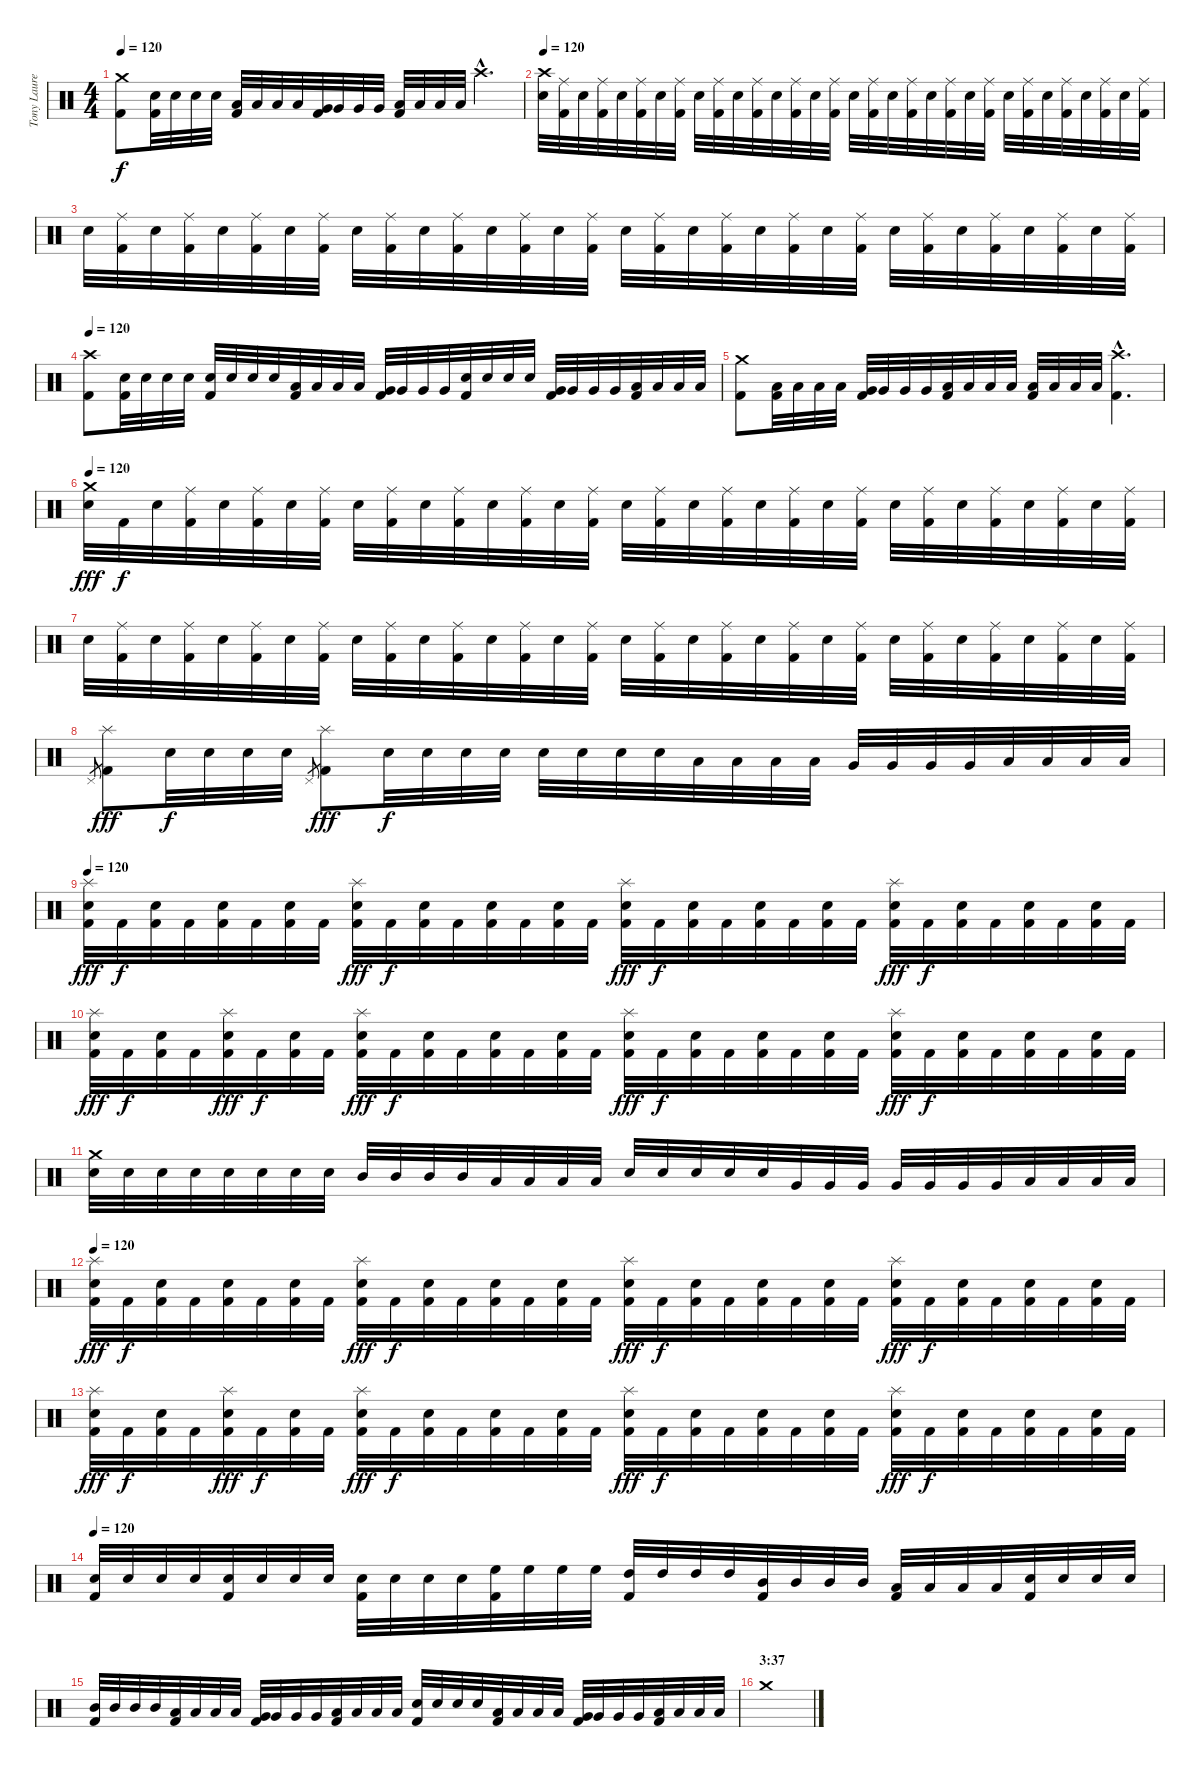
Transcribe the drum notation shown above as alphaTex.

\track ("Tony Laureano" "Tony Laure") {instrument percussion}
\staff {score}
\articulation defaults
\ts (4 4)
\tempo 120
\clef neutral
\ks c
("Crash medium (hit)" "Kick (hit) 2").8{dy f} ("Electric Snare (hit)" "Kick (hit) 2").32 "Electric Snare (hit)".32 "Electric Snare (hit)".32 "Electric Snare (hit)".32 ("Low Tom (hit)" "Kick (hit) 2").32 "Low Tom (hit)".32 "Low Tom (hit)".32 "Low Tom (hit)".32 ("Very Low Tom (hit)" "Kick (hit) 2").32 "Very Low Tom (hit)".32 "Very Low Tom (hit)".32 "Very Low Tom (hit)".32 ("Low Floor Tom (hit)" "Kick (hit) 2").32 "Low Floor Tom (hit)".32 "Low Floor Tom (hit)".32 "Low Floor Tom (hit)".32 "Crash high (hit)"{hac}.4{d} |
\tempo 120
("Crash high (hit)" "Electric Snare (hit)").32 ("Ride (middle)" "Kick (hit) 2").32 "Electric Snare (hit)".32 ("Ride (middle)" "Kick (hit) 2").32 "Electric Snare (hit)".32 ("Ride (middle)" "Kick (hit) 2").32 "Electric Snare (hit)".32 ("Ride (middle)" "Kick (hit) 2").32 "Electric Snare (hit)".32 ("Ride (middle)" "Kick (hit) 2").32 "Electric Snare (hit)".32 ("Ride (middle)" "Kick (hit) 2").32 "Electric Snare (hit)".32 ("Ride (middle)" "Kick (hit) 2").32 "Electric Snare (hit)".32 ("Ride (middle)" "Kick (hit) 2").32 "Electric Snare (hit)".32 ("Ride (middle)" "Kick (hit) 2").32 "Electric Snare (hit)".32 ("Ride (middle)" "Kick (hit) 2").32 "Electric Snare (hit)".32 ("Ride (middle)" "Kick (hit) 2").32 "Electric Snare (hit)".32 ("Ride (middle)" "Kick (hit) 2").32 "Electric Snare (hit)".32 ("Ride (middle)" "Kick (hit) 2").32 "Electric Snare (hit)".32 ("Ride (middle)" "Kick (hit) 2").32 "Electric Snare (hit)".32 ("Ride (middle)" "Kick (hit) 2").32 "Electric Snare (hit)".32 ("Ride (middle)" "Kick (hit) 2").32 |
"Electric Snare (hit)".32 ("Ride (middle)" "Kick (hit) 2").32 "Electric Snare (hit)".32 ("Ride (middle)" "Kick (hit) 2").32 "Electric Snare (hit)".32 ("Ride (middle)" "Kick (hit) 2").32 "Electric Snare (hit)".32 ("Ride (middle)" "Kick (hit) 2").32 "Electric Snare (hit)".32 ("Ride (middle)" "Kick (hit) 2").32 "Electric Snare (hit)".32 ("Ride (middle)" "Kick (hit) 2").32 "Electric Snare (hit)".32 ("Ride (middle)" "Kick (hit) 2").32 "Electric Snare (hit)".32 ("Ride (middle)" "Kick (hit) 2").32 "Electric Snare (hit)".32 ("Ride (middle)" "Kick (hit) 2").32 "Electric Snare (hit)".32 ("Ride (middle)" "Kick (hit) 2").32 "Electric Snare (hit)".32 ("Ride (middle)" "Kick (hit) 2").32 "Electric Snare (hit)".32 ("Ride (middle)" "Kick (hit) 2").32 "Electric Snare (hit)".32 ("Ride (middle)" "Kick (hit) 2").32 "Electric Snare (hit)".32 ("Ride (middle)" "Kick (hit) 2").32 "Electric Snare (hit)".32 ("Ride (middle)" "Kick (hit) 2").32 "Electric Snare (hit)".32 ("Ride (middle)" "Kick (hit) 2").32 |
\tempo 120
("Crash high (hit)" "Kick (hit) 2").8 ("Electric Snare (hit)" "Kick (hit) 2").32 "Electric Snare (hit)".32 "Electric Snare (hit)".32 "Electric Snare (hit)".32 ("Electric Snare (hit)" "Kick (hit) 2").32 "Electric Snare (hit)".32 "Electric Snare (hit)".32 "Electric Snare (hit)".32 ("Low Tom (hit)" "Kick (hit) 2").32 "Low Tom (hit)".32 "Low Tom (hit)".32 "Low Tom (hit)".32 ("Very Low Tom (hit)" "Kick (hit) 2").32 "Very Low Tom (hit)".32 "Very Low Tom (hit)".32 "Very Low Tom (hit)".32 ("Electric Snare (hit)" "Kick (hit) 2").32 "Electric Snare (hit)".32 "Electric Snare (hit)".32 "Electric Snare (hit)".32 ("Very Low Tom (hit)" "Kick (hit) 2").32 "Very Low Tom (hit)".32 "Very Low Tom (hit)".32 "Very Low Tom (hit)".32 ("Low Floor Tom (hit)" "Kick (hit) 2").32 "Low Floor Tom (hit)".32 "Low Floor Tom (hit)".32 "Low Floor Tom (hit)".32 |
("Crash medium (hit)" "Kick (hit) 2").8 ("Low Tom (hit)" "Kick (hit) 2").32 "Low Tom (hit)".32 "Low Tom (hit)".32 "Low Tom (hit)".32 ("Very Low Tom (hit)" "Kick (hit) 2").32 "Very Low Tom (hit)".32 "Very Low Tom (hit)".32 "Very Low Tom (hit)".32 ("Low Floor Tom (hit)" "Kick (hit) 2").32 "Low Floor Tom (hit)".32 "Low Floor Tom (hit)".32 "Low Floor Tom (hit)".32 ("Low Floor Tom (hit)" "Kick (hit) 2").32 "Low Floor Tom (hit)".32 "Low Floor Tom (hit)".32 "Low Floor Tom (hit)".32 ("Crash high (hit)"{hac} "Kick (hit) 2"{hac}).4{d} |
\tempo 120
("Crash medium (hit)" "Electric Snare (hit)").32{dy fff} "Kick (hit) 2".32{dy f} "Electric Snare (hit)".32 ("Ride (middle)" "Kick (hit) 2").32 "Electric Snare (hit)".32 ("Ride (middle)" "Kick (hit) 2").32 "Electric Snare (hit)".32 ("Ride (middle)" "Kick (hit) 2").32 "Electric Snare (hit)".32 ("Ride (middle)" "Kick (hit) 2").32 "Electric Snare (hit)".32 ("Ride (middle)" "Kick (hit) 2").32 "Electric Snare (hit)".32 ("Ride (middle)" "Kick (hit) 2").32 "Electric Snare (hit)".32 ("Ride (middle)" "Kick (hit) 2").32 "Electric Snare (hit)".32 ("Ride (middle)" "Kick (hit) 2").32 "Electric Snare (hit)".32 ("Ride (middle)" "Kick (hit) 2").32 "Electric Snare (hit)".32 ("Ride (middle)" "Kick (hit) 2").32 "Electric Snare (hit)".32 ("Ride (middle)" "Kick (hit) 2").32 "Electric Snare (hit)".32 ("Ride (middle)" "Kick (hit) 2").32 "Electric Snare (hit)".32 ("Ride (middle)" "Kick (hit) 2").32 "Electric Snare (hit)".32 ("Ride (middle)" "Kick (hit) 2").32 "Electric Snare (hit)".32 ("Ride (middle)" "Kick (hit) 2").32 |
"Electric Snare (hit)".32 ("Ride (middle)" "Kick (hit) 2").32 "Electric Snare (hit)".32 ("Ride (middle)" "Kick (hit) 2").32 "Electric Snare (hit)".32 ("Ride (middle)" "Kick (hit) 2").32 "Electric Snare (hit)".32 ("Ride (middle)" "Kick (hit) 2").32 "Electric Snare (hit)".32 ("Ride (middle)" "Kick (hit) 2").32 "Electric Snare (hit)".32 ("Ride (middle)" "Kick (hit) 2").32 "Electric Snare (hit)".32 ("Ride (middle)" "Kick (hit) 2").32 "Electric Snare (hit)".32 ("Ride (middle)" "Kick (hit) 2").32 "Electric Snare (hit)".32 ("Ride (middle)" "Kick (hit) 2").32 "Electric Snare (hit)".32 ("Ride (middle)" "Kick (hit) 2").32 "Electric Snare (hit)".32 ("Ride (middle)" "Kick (hit) 2").32 "Electric Snare (hit)".32 ("Ride (middle)" "Kick (hit) 2").32 "Electric Snare (hit)".32 ("Ride (middle)" "Kick (hit) 2").32 "Electric Snare (hit)".32 ("Ride (middle)" "Kick (hit) 2").32 "Electric Snare (hit)".32 ("Ride (middle)" "Kick (hit) 2").32 "Electric Snare (hit)".32 ("Ride (middle)" "Kick (hit) 2").32 |
"Pedal Hi-Hat (hit)".8{gr} ("Splash (hit)" "Kick (hit) 2").8{dy fff} "Electric Snare (hit)".32{dy f} "Electric Snare (hit)".32 "Electric Snare (hit)".32 "Electric Snare (hit)".32 "Pedal Hi-Hat (hit)".8{gr} ("Splash (hit)" "Kick (hit) 2").8{dy fff} "Electric Snare (hit)".32{dy f} "Electric Snare (hit)".32 "Electric Snare (hit)".32 "Electric Snare (hit)".32 "Electric Snare (hit)".32 "Electric Snare (hit)".32 "Electric Snare (hit)".32 "Electric Snare (hit)".32 "Low Tom (hit)".32 "Low Tom (hit)".32 "Low Tom (hit)".32 "Low Tom (hit)".32 "Very Low Tom (hit)".32 "Very Low Tom (hit)".32 "Very Low Tom (hit)".32 "Very Low Tom (hit)".32 "Low Floor Tom (hit)".32 "Low Floor Tom (hit)".32 "Low Floor Tom (hit)".32 "Low Floor Tom (hit)".32 |
\tempo 120
("Splash (hit)" "Electric Snare (hit)" "Kick (hit) 2").32{dy fff} "Kick (hit) 2".32{dy f} ("Electric Snare (hit)" "Kick (hit) 2").32 "Kick (hit) 2".32 ("Electric Snare (hit)" "Kick (hit) 2").32 "Kick (hit) 2".32 ("Electric Snare (hit)" "Kick (hit) 2").32 "Kick (hit) 2".32 ("Splash (hit)" "Electric Snare (hit)" "Kick (hit) 2").32{dy fff} "Kick (hit) 2".32{dy f} ("Electric Snare (hit)" "Kick (hit) 2").32 "Kick (hit) 2".32 ("Electric Snare (hit)" "Kick (hit) 2").32 "Kick (hit) 2".32 ("Electric Snare (hit)" "Kick (hit) 2").32 "Kick (hit) 2".32 ("Splash (hit)" "Electric Snare (hit)" "Kick (hit) 2").32{dy fff} "Kick (hit) 2".32{dy f} ("Electric Snare (hit)" "Kick (hit) 2").32 "Kick (hit) 2".32 ("Electric Snare (hit)" "Kick (hit) 2").32 "Kick (hit) 2".32 ("Electric Snare (hit)" "Kick (hit) 2").32 "Kick (hit) 2".32 ("Splash (hit)" "Electric Snare (hit)" "Kick (hit) 2").32{dy fff} "Kick (hit) 2".32{dy f} ("Electric Snare (hit)" "Kick (hit) 2").32 "Kick (hit) 2".32 ("Electric Snare (hit)" "Kick (hit) 2").32 "Kick (hit) 2".32 ("Electric Snare (hit)" "Kick (hit) 2").32 "Kick (hit) 2".32 |
("Splash (hit)" "Electric Snare (hit)" "Kick (hit) 2").32{dy fff} "Kick (hit) 2".32{dy f} ("Electric Snare (hit)" "Kick (hit) 2").32 "Kick (hit) 2".32 ("Splash (hit)" "Electric Snare (hit)" "Kick (hit) 2").32{dy fff} "Kick (hit) 2".32{dy f} ("Electric Snare (hit)" "Kick (hit) 2").32 "Kick (hit) 2".32 ("Splash (hit)" "Electric Snare (hit)" "Kick (hit) 2").32{dy fff} "Kick (hit) 2".32{dy f} ("Electric Snare (hit)" "Kick (hit) 2").32 "Kick (hit) 2".32 ("Electric Snare (hit)" "Kick (hit) 2").32 "Kick (hit) 2".32 ("Electric Snare (hit)" "Kick (hit) 2").32 "Kick (hit) 2".32 ("Splash (hit)" "Electric Snare (hit)" "Kick (hit) 2").32{dy fff} "Kick (hit) 2".32{dy f} ("Electric Snare (hit)" "Kick (hit) 2").32 "Kick (hit) 2".32 ("Electric Snare (hit)" "Kick (hit) 2").32 "Kick (hit) 2".32 ("Electric Snare (hit)" "Kick (hit) 2").32 "Kick (hit) 2".32 ("Splash (hit)" "Electric Snare (hit)" "Kick (hit) 2").32{dy fff} "Kick (hit) 2".32{dy f} ("Electric Snare (hit)" "Kick (hit) 2").32 "Kick (hit) 2".32 ("Electric Snare (hit)" "Kick (hit) 2").32 "Kick (hit) 2".32 ("Electric Snare (hit)" "Kick (hit) 2").32 "Kick (hit) 2".32 |
("Crash medium (hit)" "Electric Snare (hit)").32 "Electric Snare (hit)".32 "Electric Snare (hit)".32 "Electric Snare (hit)".32 "Electric Snare (hit)".32 "Electric Snare (hit)".32 "Electric Snare (hit)".32 "Electric Snare (hit)".32 "Mid Tom (hit)".32 "Mid Tom (hit)".32 "Mid Tom (hit)".32 "Mid Tom (hit)".32 "Low Tom (hit)".32 "Low Tom (hit)".32 "Low Tom (hit)".32 "Low Tom (hit)".32 "Electric Snare (hit)".32 "Electric Snare (hit)".32 "Electric Snare (hit)".32 "Electric Snare (hit)".32 "Electric Snare (hit)".32 "Very Low Tom (hit)".32 "Very Low Tom (hit)".32 "Very Low Tom (hit)".32 "Very Low Tom (hit)".32 "Very Low Tom (hit)".32 "Very Low Tom (hit)".32 "Very Low Tom (hit)".32 "Low Floor Tom (hit)".32 "Low Floor Tom (hit)".32 "Low Floor Tom (hit)".32 "Low Floor Tom (hit)".32 |
\tempo 120
("Splash (hit)" "Electric Snare (hit)" "Kick (hit) 2").32{dy fff} "Kick (hit) 2".32{dy f} ("Electric Snare (hit)" "Kick (hit) 2").32 "Kick (hit) 2".32 ("Electric Snare (hit)" "Kick (hit) 2").32 "Kick (hit) 2".32 ("Electric Snare (hit)" "Kick (hit) 2").32 "Kick (hit) 2".32 ("Splash (hit)" "Electric Snare (hit)" "Kick (hit) 2").32{dy fff} "Kick (hit) 2".32{dy f} ("Electric Snare (hit)" "Kick (hit) 2").32 "Kick (hit) 2".32 ("Electric Snare (hit)" "Kick (hit) 2").32 "Kick (hit) 2".32 ("Electric Snare (hit)" "Kick (hit) 2").32 "Kick (hit) 2".32 ("Splash (hit)" "Electric Snare (hit)" "Kick (hit) 2").32{dy fff} "Kick (hit) 2".32{dy f} ("Electric Snare (hit)" "Kick (hit) 2").32 "Kick (hit) 2".32 ("Electric Snare (hit)" "Kick (hit) 2").32 "Kick (hit) 2".32 ("Electric Snare (hit)" "Kick (hit) 2").32 "Kick (hit) 2".32 ("Splash (hit)" "Electric Snare (hit)" "Kick (hit) 2").32{dy fff} "Kick (hit) 2".32{dy f} ("Electric Snare (hit)" "Kick (hit) 2").32 "Kick (hit) 2".32 ("Electric Snare (hit)" "Kick (hit) 2").32 "Kick (hit) 2".32 ("Electric Snare (hit)" "Kick (hit) 2").32 "Kick (hit) 2".32 |
("Splash (hit)" "Electric Snare (hit)" "Kick (hit) 2").32{dy fff} "Kick (hit) 2".32{dy f} ("Electric Snare (hit)" "Kick (hit) 2").32 "Kick (hit) 2".32 ("Splash (hit)" "Electric Snare (hit)" "Kick (hit) 2").32{dy fff} "Kick (hit) 2".32{dy f} ("Electric Snare (hit)" "Kick (hit) 2").32 "Kick (hit) 2".32 ("Splash (hit)" "Electric Snare (hit)" "Kick (hit) 2").32{dy fff} "Kick (hit) 2".32{dy f} ("Electric Snare (hit)" "Kick (hit) 2").32 "Kick (hit) 2".32 ("Electric Snare (hit)" "Kick (hit) 2").32 "Kick (hit) 2".32 ("Electric Snare (hit)" "Kick (hit) 2").32 "Kick (hit) 2".32 ("Splash (hit)" "Electric Snare (hit)" "Kick (hit) 2").32{dy fff} "Kick (hit) 2".32{dy f} ("Electric Snare (hit)" "Kick (hit) 2").32 "Kick (hit) 2".32 ("Electric Snare (hit)" "Kick (hit) 2").32 "Kick (hit) 2".32 ("Electric Snare (hit)" "Kick (hit) 2").32 "Kick (hit) 2".32 ("Splash (hit)" "Electric Snare (hit)" "Kick (hit) 2").32{dy fff} "Kick (hit) 2".32{dy f} ("Electric Snare (hit)" "Kick (hit) 2").32 "Kick (hit) 2".32 ("Electric Snare (hit)" "Kick (hit) 2").32 "Kick (hit) 2".32 ("Electric Snare (hit)" "Kick (hit) 2").32 "Kick (hit) 2".32 |
\tempo 120
("Electric Snare (hit)" "Kick (hit) 2").32 "Electric Snare (hit)".32 "Electric Snare (hit)".32 "Electric Snare (hit)".32 ("Electric Snare (hit)" "Kick (hit) 2").32 "Electric Snare (hit)".32 "Electric Snare (hit)".32 "Electric Snare (hit)".32 ("Electric Snare (hit)" "Kick (hit) 2").32 "Electric Snare (hit)".32 "Electric Snare (hit)".32 "Electric Snare (hit)".32 ("High Floor Tom (hit)" "Kick (hit) 2").32 "High Floor Tom (hit)".32 "High Floor Tom (hit)".32 "High Floor Tom (hit)".32 ("High Tom (hit)" "Kick (hit) 2").32 "High Tom (hit)".32 "High Tom (hit)".32 "High Tom (hit)".32 ("Mid Tom (hit)" "Kick (hit) 2").32 "Mid Tom (hit)".32 "Mid Tom (hit)".32 "Mid Tom (hit)".32 ("Low Tom (hit)" "Kick (hit) 2").32 "Low Tom (hit)".32 "Low Tom (hit)".32 "Low Tom (hit)".32 ("Electric Snare (hit)" "Kick (hit) 2").32 "Electric Snare (hit)".32 "Electric Snare (hit)".32 "Electric Snare (hit)".32 |
("Mid Tom (hit)" "Kick (hit) 2").32 "Mid Tom (hit)".32 "Mid Tom (hit)".32 "Mid Tom (hit)".32 ("Low Tom (hit)" "Kick (hit) 2").32 "Low Tom (hit)".32 "Low Tom (hit)".32 "Low Tom (hit)".32 ("Very Low Tom (hit)" "Kick (hit) 2").32 "Very Low Tom (hit)".32 "Very Low Tom (hit)".32 "Very Low Tom (hit)".32 ("Low Floor Tom (hit)" "Kick (hit) 2").32 "Low Floor Tom (hit)".32 "Low Floor Tom (hit)".32 "Low Floor Tom (hit)".32 ("Electric Snare (hit)" "Kick (hit) 2").32 "Electric Snare (hit)".32 "Electric Snare (hit)".32 "Electric Snare (hit)".32 ("Low Tom (hit)" "Kick (hit) 2").32 "Low Tom (hit)".32 "Low Tom (hit)".32 "Low Tom (hit)".32 ("Very Low Tom (hit)" "Kick (hit) 2").32 "Very Low Tom (hit)".32 "Very Low Tom (hit)".32 "Very Low Tom (hit)".32 ("Low Floor Tom (hit)" "Kick (hit) 2").32 "Low Floor Tom (hit)".32 "Low Floor Tom (hit)".32 "Low Floor Tom (hit)".32 |
\section ("" "3:37")
"Crash medium (hit)".1
